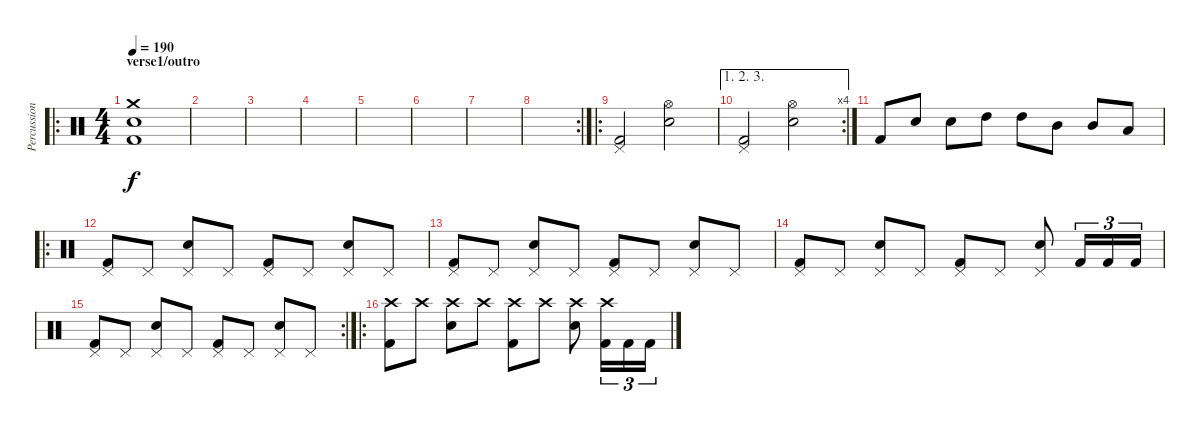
\track ("Percussions" "Percussion") {instrument percussion}
\staff {score}
\articulation defaults
\ro
\ts (4 4)
\section ("" "verse1/outro")
\tempo 190
\clef neutral
\ks c
("Crash medium (hit)" "Snare (hit) 2" "Kick (hit) 2").1{dy f} |
|
|
|
|
|
|
\rc 2
|
\ro
("Pedal Hi-Hat (hit)" "Kick (hit) 2").2 ("Hi-Hat (open)" "Electric Snare (hit)").2 |
\ae (1 2 3)
\rc 4
("Pedal Hi-Hat (hit)" "Kick (hit) 2").2 ("Hi-Hat (open)" "Electric Snare (hit)").2 |
"Kick (hit) 2".8 "Electric Snare (hit)".8 "Electric Snare (hit)".8 "High Tom (hit)".8 "High Tom (hit)".8 "Mid Tom (hit)".8 "Mid Tom (hit)".8 "Low Tom (hit)".8 |
\ro
("Pedal Hi-Hat (hit)" "Kick (hit) 2").8 "Pedal Hi-Hat (hit)".8 ("Pedal Hi-Hat (hit)" "Electric Snare (hit)").8 "Pedal Hi-Hat (hit)".8 ("Pedal Hi-Hat (hit)" "Kick (hit) 2").8 "Pedal Hi-Hat (hit)".8 ("Pedal Hi-Hat (hit)" "Electric Snare (hit)").8 "Pedal Hi-Hat (hit)".8 |
("Pedal Hi-Hat (hit)" "Kick (hit) 2").8 "Pedal Hi-Hat (hit)".8 ("Pedal Hi-Hat (hit)" "Electric Snare (hit)").8 "Pedal Hi-Hat (hit)".8 ("Pedal Hi-Hat (hit)" "Kick (hit) 2").8 "Pedal Hi-Hat (hit)".8 ("Pedal Hi-Hat (hit)" "Electric Snare (hit)").8 "Pedal Hi-Hat (hit)".8 |
("Pedal Hi-Hat (hit)" "Kick (hit) 2").8 "Pedal Hi-Hat (hit)".8 ("Pedal Hi-Hat (hit)" "Electric Snare (hit)").8 "Pedal Hi-Hat (hit)".8 ("Pedal Hi-Hat (hit)" "Kick (hit) 2").8 "Pedal Hi-Hat (hit)".8 ("Pedal Hi-Hat (hit)" "Electric Snare (hit)").8 "Kick (hit) 2".16{tu (3 2)} "Kick (hit) 2".16{tu (3 2)} "Kick (hit) 2".16{tu (3 2)} |
\rc 2
("Pedal Hi-Hat (hit)" "Kick (hit) 2").8 "Pedal Hi-Hat (hit)".8 ("Pedal Hi-Hat (hit)" "Electric Snare (hit)").8 "Pedal Hi-Hat (hit)".8 ("Pedal Hi-Hat (hit)" "Kick (hit) 2").8 "Pedal Hi-Hat (hit)".8 ("Pedal Hi-Hat (hit)" "Electric Snare (hit)").8 "Pedal Hi-Hat (hit)".8 |
\ro
("Crash high (hit)" "Kick (hit) 2").8 "Crash high (hit)".8 ("Crash high (hit)" "Electric Snare (hit)").8 "Crash high (hit)".8 ("Crash high (hit)" "Kick (hit) 2").8 "Crash high (hit)".8 ("Crash high (hit)" "Electric Snare (hit)").8 ("Crash high (hit)" "Kick (hit) 2").16{tu (3 2)} "Kick (hit) 2".16{tu (3 2)} "Kick (hit) 2".16{tu (3 2)}
